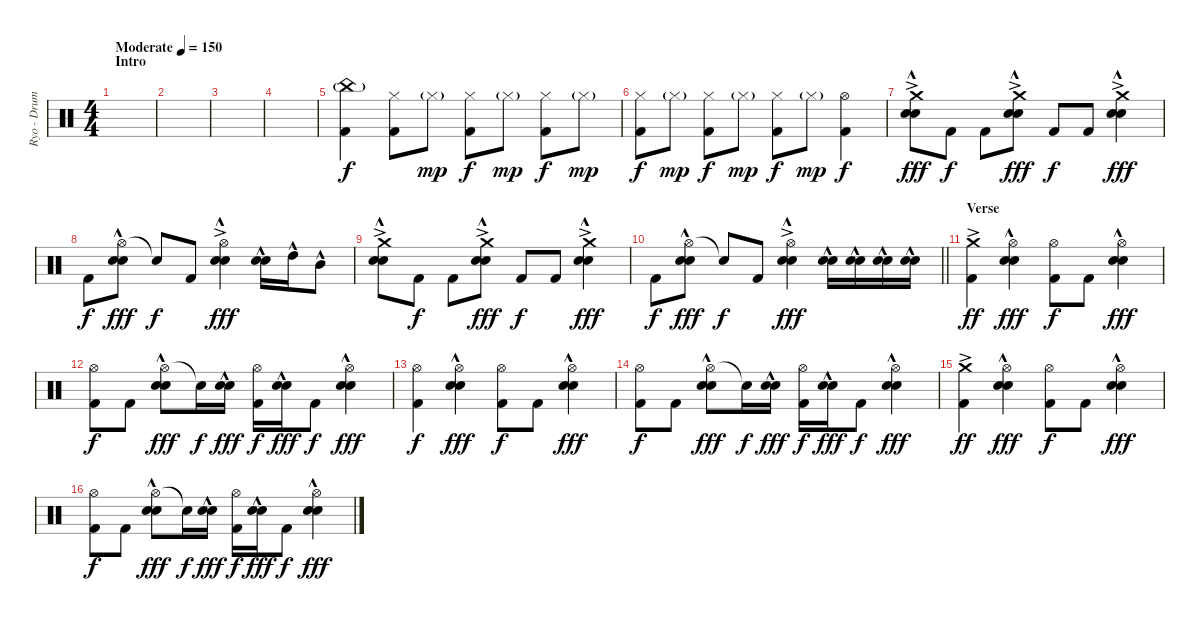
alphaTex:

\track ("Ryo - Drums" "Ryo - Drum") {instrument percussion}
\staff {score}
\articulation defaults
\ts (4 4)
\section ("" "Intro")
\tempo (150 "Moderate")
\clef neutral
\ks c
|
|
|
|
("China (hit)"{g} "Kick (hit) 2").4 ("Hi-Hat (closed)" "Kick (hit) 2").8{dy f} "Hi-Hat (closed)"{g}.8{dy mp} ("Hi-Hat (closed)" "Kick (hit) 2").8{dy f} "Hi-Hat (closed)"{g}.8{dy mp} ("Hi-Hat (closed)" "Kick (hit) 2").8{dy f} "Hi-Hat (closed)"{g}.8{dy mp} |
("Hi-Hat (closed)" "Kick (hit) 2").8{dy f} "Hi-Hat (closed)"{g}.8{dy mp} ("Hi-Hat (closed)" "Kick (hit) 2").8{dy f} "Hi-Hat (closed)"{g}.8{dy mp} ("Hi-Hat (closed)" "Kick (hit) 2").8{dy f} "Hi-Hat (closed)"{g}.8{dy mp} ("Hi-Hat (open)" "Kick (hit) 2").4{dy f} |
("Crash medium (hit)"{ac} "Electric Snare (hit)"{hac} "Snare (hit) 2"{hac}).8{dy fff} "Kick (hit) 2".8{dy f} "Kick (hit) 2".8 ("Crash medium (hit)"{ac} "Electric Snare (hit)"{hac} "Snare (hit) 2"{hac}).8{dy fff} "Kick (hit) 2".8{dy f} "Kick (hit) 2".8 ("Crash medium (hit)"{ac} "Electric Snare (hit)"{hac} "Snare (hit) 2"{hac}).4{dy fff} |
"Kick (hit) 2".8{dy f} ("Hi-Hat (open)" "Electric Snare (hit)"{hac} "Snare (hit) 2"{hac}).8{dy fff} "Snare (hit)"{t}.8{dy f} "Kick (hit) 2".8 ("Hi-Hat (open)"{ac} "Electric Snare (hit)"{hac} "Snare (hit) 2"{hac}).4{dy fff} ("Electric Snare (hit)"{hac} "Snare (hit) 2"{hac}).16 "High Tom (hit)"{hac}.16 "Mid Tom (hit)"{hac}.8 |
("Crash medium (hit)"{ac} "Electric Snare (hit)"{hac} "Snare (hit) 2"{hac}).8 "Kick (hit) 2".8{dy f} "Kick (hit) 2".8 ("Crash medium (hit)"{ac} "Electric Snare (hit)"{hac} "Snare (hit) 2"{hac}).8{dy fff} "Kick (hit) 2".8{dy f} "Kick (hit) 2".8 ("Crash medium (hit)"{ac} "Electric Snare (hit)"{hac} "Snare (hit) 2"{hac}).4{dy fff} |
\barLineRight lightlight "Kick (hit) 2".8{dy f}
("Hi-Hat (open)" "Electric Snare (hit)"{hac} "Snare (hit) 2"{hac}).8{dy fff} "Snare (hit)"{t}.8{dy f} "Kick (hit) 2".8 ("Hi-Hat (open)"{ac} "Electric Snare (hit)"{hac} "Snare (hit) 2"{hac}).4{dy fff} ("Electric Snare (hit)"{hac} "Snare (hit) 2"{hac}).16 ("Electric Snare (hit)"{hac} "Snare (hit) 2"{hac}).16 ("Electric Snare (hit)"{hac} "Snare (hit) 2"{hac}).16 ("Electric Snare (hit)"{hac} "Snare (hit) 2"{hac}).16 |
\section ("" "Verse")
("Crash medium (hit)"{ac} "Kick (hit) 2").4{dy ff} ("Hi-Hat (open)" "Electric Snare (hit)"{hac} "Snare (hit) 2"{hac}).4{dy fff} ("Hi-Hat (open)" "Kick (hit) 2").8{dy f} "Kick (hit) 2".8 ("Hi-Hat (open)" "Electric Snare (hit)"{hac} "Snare (hit) 2"{hac}).4{dy fff} |
("Hi-Hat (open)" "Kick (hit) 2").8{dy f} "Kick (hit) 2".8 ("Hi-Hat (open)" "Electric Snare (hit)"{hac} "Snare (hit) 2"{hac}).8{dy fff} "Snare (hit)"{t}.16{dy f} ("Electric Snare (hit)"{hac} "Snare (hit) 2"{hac}).16{dy fff} ("Hi-Hat (open)" "Kick (hit) 2").16{dy f} ("Electric Snare (hit)"{hac} "Snare (hit) 2"{hac}).16{dy fff} "Kick (hit) 2".8{dy f} ("Hi-Hat (open)" "Electric Snare (hit)"{hac} "Snare (hit) 2"{hac}).4{dy fff} |
("Hi-Hat (open)" "Kick (hit) 2").4{dy f} ("Hi-Hat (open)" "Electric Snare (hit)"{hac} "Snare (hit) 2"{hac}).4{dy fff} ("Hi-Hat (open)" "Kick (hit) 2").8{dy f} "Kick (hit) 2".8 ("Hi-Hat (open)" "Electric Snare (hit)"{hac} "Snare (hit) 2"{hac}).4{dy fff} |
("Hi-Hat (open)" "Kick (hit) 2").8{dy f} "Kick (hit) 2".8 ("Hi-Hat (open)" "Electric Snare (hit)"{hac} "Snare (hit) 2"{hac}).8{dy fff} "Snare (hit)"{t}.16{dy f} ("Electric Snare (hit)"{hac} "Snare (hit) 2"{hac}).16{dy fff} ("Hi-Hat (open)" "Kick (hit) 2").16{dy f} ("Electric Snare (hit)"{hac} "Snare (hit) 2"{hac}).16{dy fff} "Kick (hit) 2".8{dy f} ("Hi-Hat (open)" "Electric Snare (hit)"{hac} "Snare (hit) 2"{hac}).4{dy fff} |
("Crash medium (hit)"{ac} "Kick (hit) 2").4{dy ff} ("Hi-Hat (open)" "Electric Snare (hit)"{hac} "Snare (hit) 2"{hac}).4{dy fff} ("Hi-Hat (open)" "Kick (hit) 2").8{dy f} "Kick (hit) 2".8 ("Hi-Hat (open)" "Electric Snare (hit)"{hac} "Snare (hit) 2"{hac}).4{dy fff} |
("Hi-Hat (open)" "Kick (hit) 2").8{dy f} "Kick (hit) 2".8 ("Hi-Hat (open)" "Electric Snare (hit)"{hac} "Snare (hit) 2"{hac}).8{dy fff} "Snare (hit)"{t}.16{dy f} ("Electric Snare (hit)"{hac} "Snare (hit) 2"{hac}).16{dy fff} ("Hi-Hat (open)" "Kick (hit) 2").16{dy f} ("Electric Snare (hit)"{hac} "Snare (hit) 2"{hac}).16{dy fff} "Kick (hit) 2".8{dy f} ("Hi-Hat (open)" "Electric Snare (hit)"{hac} "Snare (hit) 2"{hac}).4{dy fff}
